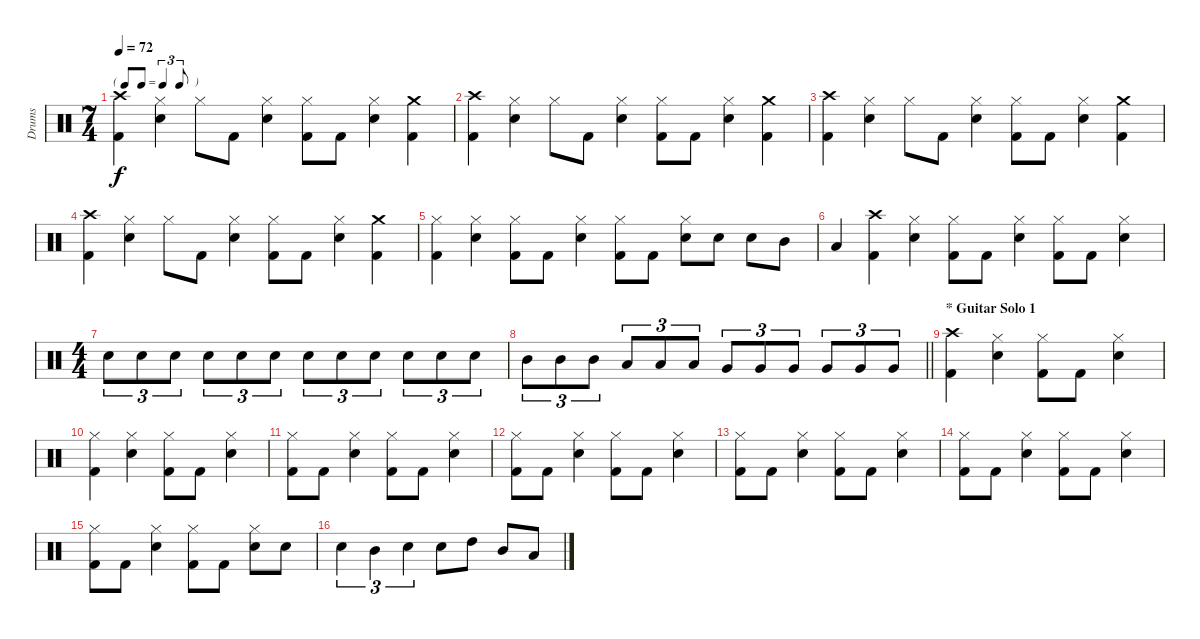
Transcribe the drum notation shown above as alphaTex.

\track ("Drums" "Drums") {instrument percussion}
\staff {score}
\articulation defaults
\ts (7 4)
\tf triplet8th
\tempo 72
\clef neutral
\ks c
("Crash high (hit)" "Kick (hit) 2").4{dy f} ("Hi-Hat (closed)" "Electric Snare (hit)").4 "Hi-Hat (closed)".8 "Kick (hit) 2".8 ("Hi-Hat (closed)" "Electric Snare (hit)").4 ("Hi-Hat (closed)" "Kick (hit) 2").8 "Kick (hit) 2".8 ("Hi-Hat (closed)" "Electric Snare (hit)").4 ("Crash medium (hit)" "Kick (hit) 2").4 |
("Crash high (hit)" "Kick (hit) 2").4 ("Hi-Hat (closed)" "Electric Snare (hit)").4 "Hi-Hat (closed)".8 "Kick (hit) 2".8 ("Hi-Hat (closed)" "Electric Snare (hit)").4 ("Hi-Hat (closed)" "Kick (hit) 2").8 "Kick (hit) 2".8 ("Hi-Hat (closed)" "Electric Snare (hit)").4 ("Crash medium (hit)" "Kick (hit) 2").4 |
("Crash high (hit)" "Kick (hit) 2").4 ("Hi-Hat (closed)" "Electric Snare (hit)").4 "Hi-Hat (closed)".8 "Kick (hit) 2".8 ("Hi-Hat (closed)" "Electric Snare (hit)").4 ("Hi-Hat (closed)" "Kick (hit) 2").8 "Kick (hit) 2".8 ("Hi-Hat (closed)" "Electric Snare (hit)").4 ("Crash medium (hit)" "Kick (hit) 2").4 |
("Crash high (hit)" "Kick (hit) 2").4 ("Hi-Hat (closed)" "Electric Snare (hit)").4 "Hi-Hat (closed)".8 "Kick (hit) 2".8 ("Hi-Hat (closed)" "Electric Snare (hit)").4 ("Hi-Hat (closed)" "Kick (hit) 2").8 "Kick (hit) 2".8 ("Hi-Hat (closed)" "Electric Snare (hit)").4 ("Crash medium (hit)" "Kick (hit) 2").4 |
("Hi-Hat (closed)" "Kick (hit) 2").4 ("Hi-Hat (closed)" "Electric Snare (hit)").4 ("Hi-Hat (closed)" "Kick (hit) 2").8 "Kick (hit) 2".8 ("Hi-Hat (closed)" "Electric Snare (hit)").4 ("Hi-Hat (closed)" "Kick (hit) 2").8 "Kick (hit) 2".8 ("Hi-Hat (closed)" "Electric Snare (hit)").8 "Electric Snare (hit)".8 "Electric Snare (hit)".8 "Mid Tom (hit)".8 |
"Low Tom (hit)".4 ("Crash high (hit)" "Kick (hit) 2").4 ("Hi-Hat (closed)" "Electric Snare (hit)").4 ("Hi-Hat (closed)" "Kick (hit) 2").8 "Kick (hit) 2".8 ("Hi-Hat (closed)" "Electric Snare (hit)").4 ("Hi-Hat (closed)" "Kick (hit) 2").8 "Kick (hit) 2".8 ("Hi-Hat (closed)" "Electric Snare (hit)").4 |
\ts (4 4)
"Electric Snare (hit)".8{tu (3 2)} "Electric Snare (hit)".8{tu (3 2)} "Electric Snare (hit)".8{tu (3 2)} "Electric Snare (hit)".8{tu (3 2)} "Electric Snare (hit)".8{tu (3 2)} "Electric Snare (hit)".8{tu (3 2)} "Electric Snare (hit)".8{tu (3 2)} "Electric Snare (hit)".8{tu (3 2)} "Electric Snare (hit)".8{tu (3 2)} "Electric Snare (hit)".8{tu (3 2)} "Electric Snare (hit)".8{tu (3 2)} "Electric Snare (hit)".8{tu (3 2)} |
\barLineRight lightlight "Mid Tom (hit)".8{tu (3 2)} "Mid Tom (hit)".8{tu (3 2)} "Mid Tom (hit)".8{tu (3 2)} "Low Tom (hit)".8{tu (3 2)} "Low Tom (hit)".8{tu (3 2)} "Low Tom (hit)".8{tu (3 2)} "Very Low Tom (hit)".8{tu (3 2)} "Very Low Tom (hit)".8{tu (3 2)} "Very Low Tom (hit)".8{tu (3 2)} "Very Low Tom (hit)".8{tu (3 2)} "Very Low Tom (hit)".8{tu (3 2)} "Very Low Tom (hit)".8{tu (3 2)}
|
\section ("" "* Guitar Solo 1")
("Crash high (hit)" "Kick (hit) 2").4 ("Hi-Hat (closed)" "Electric Snare (hit)").4 ("Hi-Hat (closed)" "Kick (hit) 2").8 "Kick (hit) 2".8 ("Hi-Hat (closed)" "Electric Snare (hit)").4 |
("Hi-Hat (closed)" "Kick (hit) 2").4 ("Hi-Hat (closed)" "Electric Snare (hit)").4 ("Hi-Hat (closed)" "Kick (hit) 2").8 "Kick (hit) 2".8 ("Hi-Hat (closed)" "Electric Snare (hit)").4 |
("Hi-Hat (closed)" "Kick (hit) 2").8 "Kick (hit) 2".8 ("Hi-Hat (closed)" "Electric Snare (hit)").4 ("Hi-Hat (closed)" "Kick (hit) 2").8 "Kick (hit) 2".8 ("Hi-Hat (closed)" "Electric Snare (hit)").4 |
("Hi-Hat (closed)" "Kick (hit) 2").8 "Kick (hit) 2".8 ("Hi-Hat (closed)" "Electric Snare (hit)").4 ("Hi-Hat (closed)" "Kick (hit) 2").8 "Kick (hit) 2".8 ("Hi-Hat (closed)" "Electric Snare (hit)").4 |
("Hi-Hat (closed)" "Kick (hit) 2").8 "Kick (hit) 2".8 ("Hi-Hat (closed)" "Electric Snare (hit)").4 ("Hi-Hat (closed)" "Kick (hit) 2").8 "Kick (hit) 2".8 ("Hi-Hat (closed)" "Electric Snare (hit)").4 |
("Hi-Hat (closed)" "Kick (hit) 2").8 "Kick (hit) 2".8 ("Hi-Hat (closed)" "Electric Snare (hit)").4 ("Hi-Hat (closed)" "Kick (hit) 2").8 "Kick (hit) 2".8 ("Hi-Hat (closed)" "Electric Snare (hit)").4 |
("Hi-Hat (closed)" "Kick (hit) 2").8 "Kick (hit) 2".8 ("Hi-Hat (closed)" "Electric Snare (hit)").4 ("Hi-Hat (closed)" "Kick (hit) 2").8 "Kick (hit) 2".8 ("Hi-Hat (closed)" "Electric Snare (hit)").8 "Electric Snare (hit)".8 |
"Electric Snare (hit)".4{tu (3 2)} "Mid Tom (hit)".4{tu (3 2)} "Electric Snare (hit)".4{tu (3 2)} "Electric Snare (hit)".8 "High Tom (hit)".8 "Mid Tom (hit)".8 "Low Tom (hit)".8
